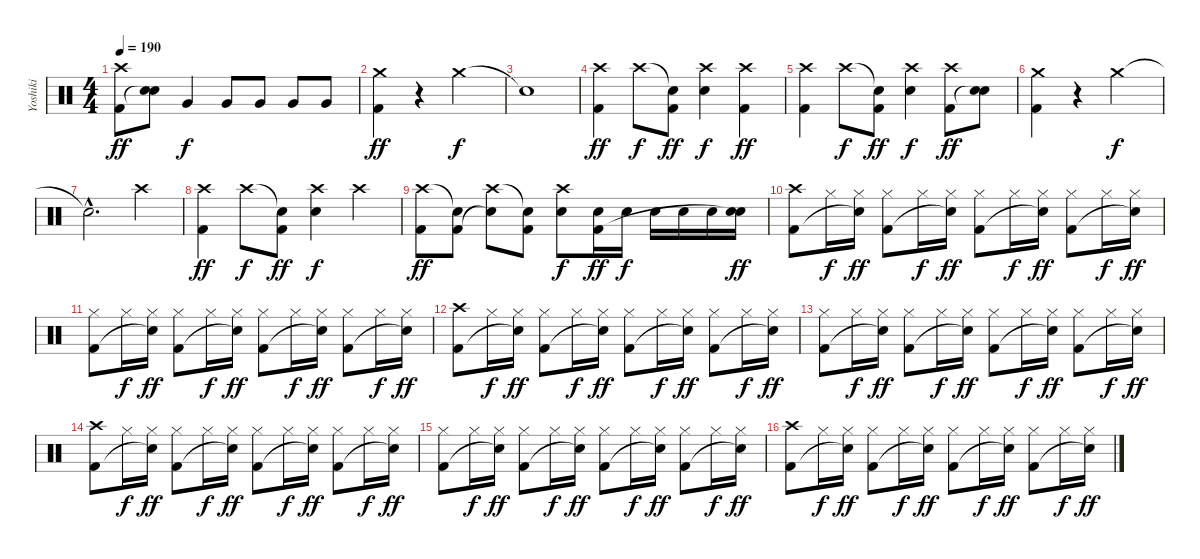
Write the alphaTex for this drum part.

\track ("Yoshiki" "Yoshiki") {instrument percussion}
\staff {score}
\articulation defaults
\ts (4 4)
\tempo 190
\clef neutral
\ks c
("Crash high (hit)" "Kick (hit) 2").8{dy ff} ("Snare (hit) 2" "Snare (hit)"{t}).8 "Very Low Tom (hit)".4{dy f} "Very Low Tom (hit)".8 "Very Low Tom (hit)".8 "Very Low Tom (hit)".8 "Very Low Tom (hit)".8 |
("Crash medium (hit)" "Kick (hit) 2").4{dy ff} r.4 "Crash medium (hit)".2{dy f} |
"Snare (hit)"{t}.1 |
("Crash high (hit)" "Kick (hit) 2").4{dy ff} "Crash high (hit)".8{dy f} ("Snare (hit)"{t} "Kick (hit) 2").8{dy ff} ("Crash high (hit)" "Snare (hit) 2").4{dy f} ("Crash high (hit)" "Kick (hit) 2").4{dy ff} |
("Crash high (hit)" "Kick (hit) 2").4 "Crash high (hit)".8{dy f} ("Snare (hit)"{t} "Kick (hit) 2").8{dy ff} ("Crash high (hit)" "Snare (hit) 2").4{dy f} ("Crash high (hit)" "Kick (hit) 2").8{dy ff} ("Snare (hit) 2" "Snare (hit)"{t}).8 |
("Crash medium (hit)" "Kick (hit) 2").4 r.4 "Crash medium (hit)".2{dy f} |
"Snare (hit)"{hac t}.2{d} "Crash high (hit)".4 |
("Crash high (hit)" "Kick (hit) 2").4{dy ff} "Crash high (hit)".8{dy f} ("Snare (hit)"{t} "Kick (hit) 2").8{dy ff} ("Crash high (hit)" "Snare (hit) 2").4{dy f} "Crash high (hit)".4 |
("Crash high (hit)" "Kick (hit) 2").8{dy ff} ("Snare (hit)"{t} "Kick (hit) 2").8 ("Crash high (hit)" "Snare (hit)"{t}).8 ("Snare (hit)"{t} "Kick (hit) 2").8 ("Crash high (hit)" "Snare (hit) 2").8{dy f} ("Snare (hit) 2" "Kick (hit) 2").16{dy ff} "Snare (hit) 2".16{dy f} "Snare (hit) 2".16 "Snare (hit) 2".16 "Snare (hit) 2".16 ("Snare (hit) 2" "Snare (hit)"{t}).16{dy ff} |
("Crash high (hit)" "Kick (hit) 2").8 "Hi-Hat (closed)".16{dy f} ("Hi-Hat (closed)" "Snare (hit)"{t}).16{dy ff} ("Hi-Hat (closed)" "Kick (hit) 2").8 "Hi-Hat (closed)".16{dy f} ("Hi-Hat (closed)" "Snare (hit)"{t}).16{dy ff} ("Hi-Hat (closed)" "Kick (hit) 2").8 "Hi-Hat (closed)".16{dy f} ("Hi-Hat (closed)" "Snare (hit)"{t}).16{dy ff} ("Hi-Hat (closed)" "Kick (hit) 2").8 "Hi-Hat (closed)".16{dy f} ("Hi-Hat (closed)" "Snare (hit)"{t}).16{dy ff} |
("Hi-Hat (closed)" "Kick (hit) 2").8 "Hi-Hat (closed)".16{dy f} ("Hi-Hat (closed)" "Snare (hit)"{t}).16{dy ff} ("Hi-Hat (closed)" "Kick (hit) 2").8 "Hi-Hat (closed)".16{dy f} ("Hi-Hat (closed)" "Snare (hit)"{t}).16{dy ff} ("Hi-Hat (closed)" "Kick (hit) 2").8 "Hi-Hat (closed)".16{dy f} ("Hi-Hat (closed)" "Snare (hit)"{t}).16{dy ff} ("Hi-Hat (closed)" "Kick (hit) 2").8 "Hi-Hat (closed)".16{dy f} ("Hi-Hat (closed)" "Snare (hit)"{t}).16{dy ff} |
("Crash high (hit)" "Kick (hit) 2").8 "Hi-Hat (closed)".16{dy f} ("Hi-Hat (closed)" "Snare (hit)"{t}).16{dy ff} ("Hi-Hat (closed)" "Kick (hit) 2").8 "Hi-Hat (closed)".16{dy f} ("Hi-Hat (closed)" "Snare (hit)"{t}).16{dy ff} ("Hi-Hat (closed)" "Kick (hit) 2").8 "Hi-Hat (closed)".16{dy f} ("Hi-Hat (closed)" "Snare (hit)"{t}).16{dy ff} ("Hi-Hat (closed)" "Kick (hit) 2").8 "Hi-Hat (closed)".16{dy f} ("Hi-Hat (closed)" "Snare (hit)"{t}).16{dy ff} |
("Hi-Hat (closed)" "Kick (hit) 2").8 "Hi-Hat (closed)".16{dy f} ("Hi-Hat (closed)" "Snare (hit)"{t}).16{dy ff} ("Hi-Hat (closed)" "Kick (hit) 2").8 "Hi-Hat (closed)".16{dy f} ("Hi-Hat (closed)" "Snare (hit)"{t}).16{dy ff} ("Hi-Hat (closed)" "Kick (hit) 2").8 "Hi-Hat (closed)".16{dy f} ("Hi-Hat (closed)" "Snare (hit)"{t}).16{dy ff} ("Hi-Hat (closed)" "Kick (hit) 2").8 "Hi-Hat (closed)".16{dy f} ("Hi-Hat (closed)" "Snare (hit)"{t}).16{dy ff} |
("Crash high (hit)" "Kick (hit) 2").8 "Hi-Hat (closed)".16{dy f} ("Hi-Hat (closed)" "Snare (hit)"{t}).16{dy ff} ("Hi-Hat (closed)" "Kick (hit) 2").8 "Hi-Hat (closed)".16{dy f} ("Hi-Hat (closed)" "Snare (hit)"{t}).16{dy ff} ("Hi-Hat (closed)" "Kick (hit) 2").8 "Hi-Hat (closed)".16{dy f} ("Hi-Hat (closed)" "Snare (hit)"{t}).16{dy ff} ("Hi-Hat (closed)" "Kick (hit) 2").8 "Hi-Hat (closed)".16{dy f} ("Hi-Hat (closed)" "Snare (hit)"{t}).16{dy ff} |
("Hi-Hat (closed)" "Kick (hit) 2").8 "Hi-Hat (closed)".16{dy f} ("Hi-Hat (closed)" "Snare (hit)"{t}).16{dy ff} ("Hi-Hat (closed)" "Kick (hit) 2").8 "Hi-Hat (closed)".16{dy f} ("Hi-Hat (closed)" "Snare (hit)"{t}).16{dy ff} ("Hi-Hat (closed)" "Kick (hit) 2").8 "Hi-Hat (closed)".16{dy f} ("Hi-Hat (closed)" "Snare (hit)"{t}).16{dy ff} ("Hi-Hat (closed)" "Kick (hit) 2").8 "Hi-Hat (closed)".16{dy f} ("Hi-Hat (closed)" "Snare (hit)"{t}).16{dy ff} |
("Crash high (hit)" "Kick (hit) 2").8 "Hi-Hat (closed)".16{dy f} ("Hi-Hat (closed)" "Snare (hit)"{t}).16{dy ff} ("Hi-Hat (closed)" "Kick (hit) 2").8 "Hi-Hat (closed)".16{dy f} ("Hi-Hat (closed)" "Snare (hit)"{t}).16{dy ff} ("Hi-Hat (closed)" "Kick (hit) 2").8 "Hi-Hat (closed)".16{dy f} ("Hi-Hat (closed)" "Snare (hit)"{t}).16{dy ff} ("Hi-Hat (closed)" "Kick (hit) 2").8 "Hi-Hat (closed)".16{dy f} ("Hi-Hat (closed)" "Snare (hit)"{t}).16{dy ff}
